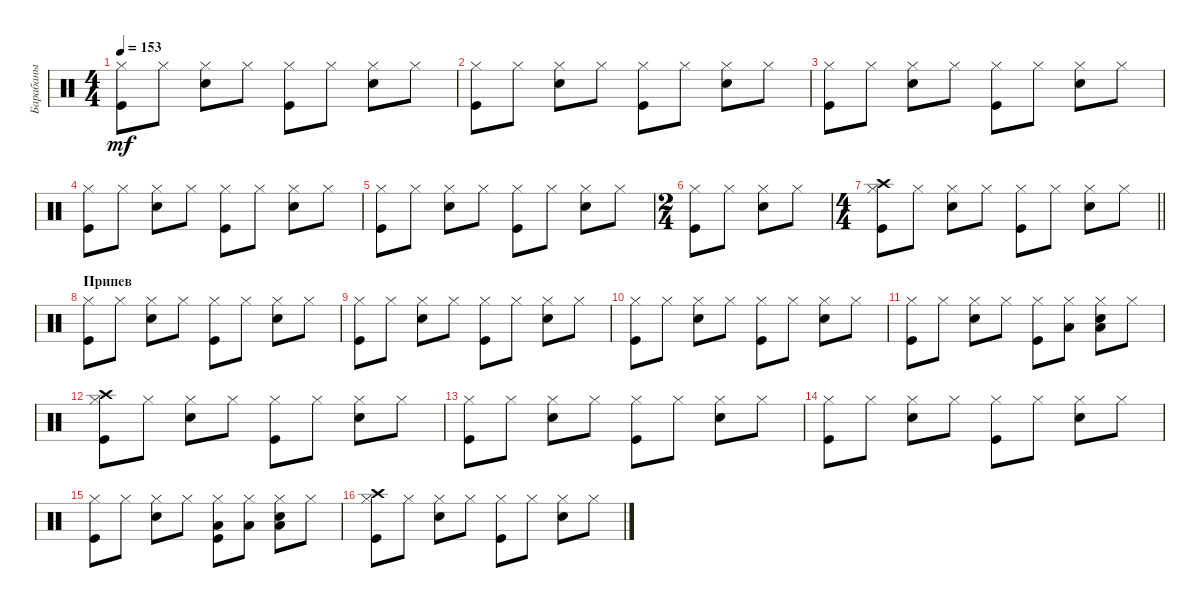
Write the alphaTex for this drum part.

\track ("Барабаны" "Барабаны") {instrument percussion}
\staff {score}
\articulation defaults
\ts (4 4)
\tempo 153
\clef neutral
\ks c
("Kick (hit)" "Hi-Hat (closed)").8{dy mf} "Hi-Hat (closed)".8 ("Snare (hit) 2" "Hi-Hat (closed)").8 "Hi-Hat (closed)".8 ("Kick (hit)" "Hi-Hat (closed)").8 "Hi-Hat (closed)".8 ("Snare (hit) 2" "Hi-Hat (closed)").8 "Hi-Hat (closed)".8 |
("Kick (hit)" "Hi-Hat (closed)").8 "Hi-Hat (closed)".8 ("Snare (hit) 2" "Hi-Hat (closed)").8 "Hi-Hat (closed)".8 ("Kick (hit)" "Hi-Hat (closed)").8 "Hi-Hat (closed)".8 ("Snare (hit) 2" "Hi-Hat (closed)").8 "Hi-Hat (closed)".8 |
("Kick (hit)" "Hi-Hat (closed)").8 "Hi-Hat (closed)".8 ("Snare (hit) 2" "Hi-Hat (closed)").8 "Hi-Hat (closed)".8 ("Kick (hit)" "Hi-Hat (closed)").8 "Hi-Hat (closed)".8 ("Snare (hit) 2" "Hi-Hat (closed)").8 "Hi-Hat (closed)".8 |
("Kick (hit)" "Hi-Hat (closed)").8 "Hi-Hat (closed)".8 ("Snare (hit) 2" "Hi-Hat (closed)").8 "Hi-Hat (closed)".8 ("Kick (hit)" "Hi-Hat (closed)").8 "Hi-Hat (closed)".8 ("Snare (hit) 2" "Hi-Hat (closed)").8 "Hi-Hat (closed)".8 |
("Kick (hit)" "Hi-Hat (closed)").8 "Hi-Hat (closed)".8 ("Snare (hit) 2" "Hi-Hat (closed)").8 "Hi-Hat (closed)".8 ("Kick (hit)" "Hi-Hat (closed)").8 "Hi-Hat (closed)".8 ("Snare (hit) 2" "Hi-Hat (closed)").8 "Hi-Hat (closed)".8 |
\ts (2 4)
("Kick (hit)" "Hi-Hat (closed)").8 "Hi-Hat (closed)".8 ("Snare (hit) 2" "Hi-Hat (closed)").8 "Hi-Hat (closed)".8 |
\ts (4 4)
\barLineRight lightlight
("Kick (hit)" "Hi-Hat (closed)" "Crash high (hit)").8 "Hi-Hat (closed)".8 ("Snare (hit) 2" "Hi-Hat (closed)").8 "Hi-Hat (closed)".8 ("Kick (hit)" "Hi-Hat (closed)").8 "Hi-Hat (closed)".8 ("Snare (hit) 2" "Hi-Hat (closed)").8 "Hi-Hat (closed)".8 |
\section ("" "Припев")
("Kick (hit)" "Hi-Hat (closed)").8 "Hi-Hat (closed)".8 ("Snare (hit) 2" "Hi-Hat (closed)").8 "Hi-Hat (closed)".8 ("Kick (hit)" "Hi-Hat (closed)").8 "Hi-Hat (closed)".8 ("Snare (hit) 2" "Hi-Hat (closed)").8 "Hi-Hat (closed)".8 |
("Kick (hit)" "Hi-Hat (closed)").8 "Hi-Hat (closed)".8 ("Snare (hit) 2" "Hi-Hat (closed)").8 "Hi-Hat (closed)".8 ("Kick (hit)" "Hi-Hat (closed)").8 "Hi-Hat (closed)".8 ("Snare (hit) 2" "Hi-Hat (closed)").8 "Hi-Hat (closed)".8 |
("Kick (hit)" "Hi-Hat (closed)").8 "Hi-Hat (closed)".8 ("Snare (hit) 2" "Hi-Hat (closed)").8 "Hi-Hat (closed)".8 ("Kick (hit)" "Hi-Hat (closed)").8 "Hi-Hat (closed)".8 ("Snare (hit) 2" "Hi-Hat (closed)").8 "Hi-Hat (closed)".8 |
("Kick (hit)" "Hi-Hat (closed)").8 "Hi-Hat (closed)".8 ("Snare (hit) 2" "Hi-Hat (closed)").8 "Hi-Hat (closed)".8 ("Kick (hit)" "Hi-Hat (closed)").8 ("Hi-Hat (closed)" "Low Tom (hit)").8 ("Snare (hit) 2" "Hi-Hat (closed)" "Low Tom (hit)").8 "Hi-Hat (closed)".8 |
("Kick (hit)" "Hi-Hat (closed)" "Crash high (hit)").8 "Hi-Hat (closed)".8 ("Snare (hit) 2" "Hi-Hat (closed)").8 "Hi-Hat (closed)".8 ("Kick (hit)" "Hi-Hat (closed)").8 "Hi-Hat (closed)".8 ("Snare (hit) 2" "Hi-Hat (closed)").8 "Hi-Hat (closed)".8 |
("Kick (hit)" "Hi-Hat (closed)").8 "Hi-Hat (closed)".8 ("Snare (hit) 2" "Hi-Hat (closed)").8 "Hi-Hat (closed)".8 ("Kick (hit)" "Hi-Hat (closed)").8 "Hi-Hat (closed)".8 ("Snare (hit) 2" "Hi-Hat (closed)").8 "Hi-Hat (closed)".8 |
("Kick (hit)" "Hi-Hat (closed)").8 "Hi-Hat (closed)".8 ("Snare (hit) 2" "Hi-Hat (closed)").8 "Hi-Hat (closed)".8 ("Kick (hit)" "Hi-Hat (closed)").8 "Hi-Hat (closed)".8 ("Snare (hit) 2" "Hi-Hat (closed)").8 "Hi-Hat (closed)".8 |
("Kick (hit)" "Hi-Hat (closed)").8 "Hi-Hat (closed)".8 ("Snare (hit) 2" "Hi-Hat (closed)").8 "Hi-Hat (closed)".8 ("Kick (hit)" "Hi-Hat (closed)" "Low Floor Tom (hit)").8 ("Hi-Hat (closed)" "Low Floor Tom (hit)").8 ("Snare (hit) 2" "Hi-Hat (closed)" "Low Floor Tom (hit)").8 "Hi-Hat (closed)".8 |
("Kick (hit)" "Hi-Hat (closed)" "Crash high (hit)").8 "Hi-Hat (closed)".8 ("Snare (hit) 2" "Hi-Hat (closed)").8 "Hi-Hat (closed)".8 ("Kick (hit)" "Hi-Hat (closed)").8 "Hi-Hat (closed)".8 ("Snare (hit) 2" "Hi-Hat (closed)").8 "Hi-Hat (closed)".8
